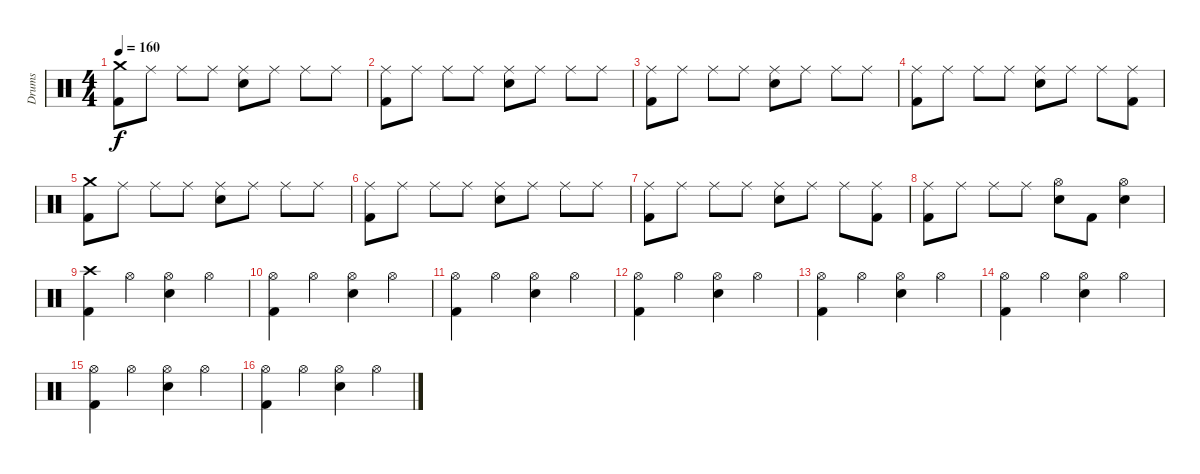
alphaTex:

\track ("Drums" "Drums") {instrument percussion}
\staff {score}
\articulation defaults
\ts (4 4)
\tempo 160
\clef neutral
\ks c
("Kick (hit) 2" "Crash medium (hit)").8{dy f} "Ride (middle)".8 "Ride (middle)".8 "Ride (middle)".8 ("Electric Snare (hit)" "Ride (middle)").8 "Ride (middle)".8 "Ride (middle)".8 "Ride (middle)".8 |
("Kick (hit) 2" "Ride (middle)").8 "Ride (middle)".8 "Ride (middle)".8 "Ride (middle)".8 ("Electric Snare (hit)" "Ride (middle)").8 "Ride (middle)".8 "Ride (middle)".8 "Ride (middle)".8 |
("Kick (hit) 2" "Ride (middle)").8 "Ride (middle)".8 "Ride (middle)".8 "Ride (middle)".8 ("Electric Snare (hit)" "Ride (middle)").8 "Ride (middle)".8 "Ride (middle)".8 "Ride (middle)".8 |
("Kick (hit) 2" "Ride (middle)").8 "Ride (middle)".8 "Ride (middle)".8 "Ride (middle)".8 ("Electric Snare (hit)" "Ride (middle)").8 "Ride (middle)".8 "Ride (middle)".8 ("Kick (hit) 2" "Ride (middle)").8 |
("Kick (hit) 2" "Crash medium (hit)").8 "Ride (middle)".8 "Ride (middle)".8 "Ride (middle)".8 ("Electric Snare (hit)" "Ride (middle)").8 "Ride (middle)".8 "Ride (middle)".8 "Ride (middle)".8 |
("Kick (hit) 2" "Ride (middle)").8 "Ride (middle)".8 "Ride (middle)".8 "Ride (middle)".8 ("Electric Snare (hit)" "Ride (middle)").8 "Ride (middle)".8 "Ride (middle)".8 "Ride (middle)".8 |
("Kick (hit) 2" "Ride (middle)").8 "Ride (middle)".8 "Ride (middle)".8 "Ride (middle)".8 ("Electric Snare (hit)" "Ride (middle)").8 "Ride (middle)".8 "Ride (middle)".8 ("Kick (hit) 2" "Ride (middle)").8 |
("Kick (hit) 2" "Ride (middle)").8 "Ride (middle)".8 "Ride (middle)".8 "Ride (middle)".8 ("Electric Snare (hit)" "Hi-Hat (open)").8 "Kick (hit) 2".8 ("Electric Snare (hit)" "Hi-Hat (open)").4 |
("Kick (hit) 2" "Crash high (hit)").4 "Hi-Hat (open)".4 ("Electric Snare (hit)" "Hi-Hat (open)").4 "Hi-Hat (open)".4 |
("Kick (hit) 2" "Hi-Hat (open)").4 "Hi-Hat (open)".4 ("Electric Snare (hit)" "Hi-Hat (open)").4 "Hi-Hat (open)".4 |
("Kick (hit) 2" "Hi-Hat (open)").4 "Hi-Hat (open)".4 ("Electric Snare (hit)" "Hi-Hat (open)").4 "Hi-Hat (open)".4 |
("Kick (hit) 2" "Hi-Hat (open)").4 "Hi-Hat (open)".4 ("Electric Snare (hit)" "Hi-Hat (open)").4 "Hi-Hat (open)".4 |
("Kick (hit) 2" "Hi-Hat (open)").4 "Hi-Hat (open)".4 ("Electric Snare (hit)" "Hi-Hat (open)").4 "Hi-Hat (open)".4 |
("Kick (hit) 2" "Hi-Hat (open)").4 "Hi-Hat (open)".4 ("Electric Snare (hit)" "Hi-Hat (open)").4 "Hi-Hat (open)".4 |
("Kick (hit) 2" "Hi-Hat (open)").4 "Hi-Hat (open)".4 ("Electric Snare (hit)" "Hi-Hat (open)").4 "Hi-Hat (open)".4 |
("Kick (hit) 2" "Hi-Hat (open)").4 "Hi-Hat (open)".4 ("Electric Snare (hit)" "Hi-Hat (open)").4 "Hi-Hat (open)".4
